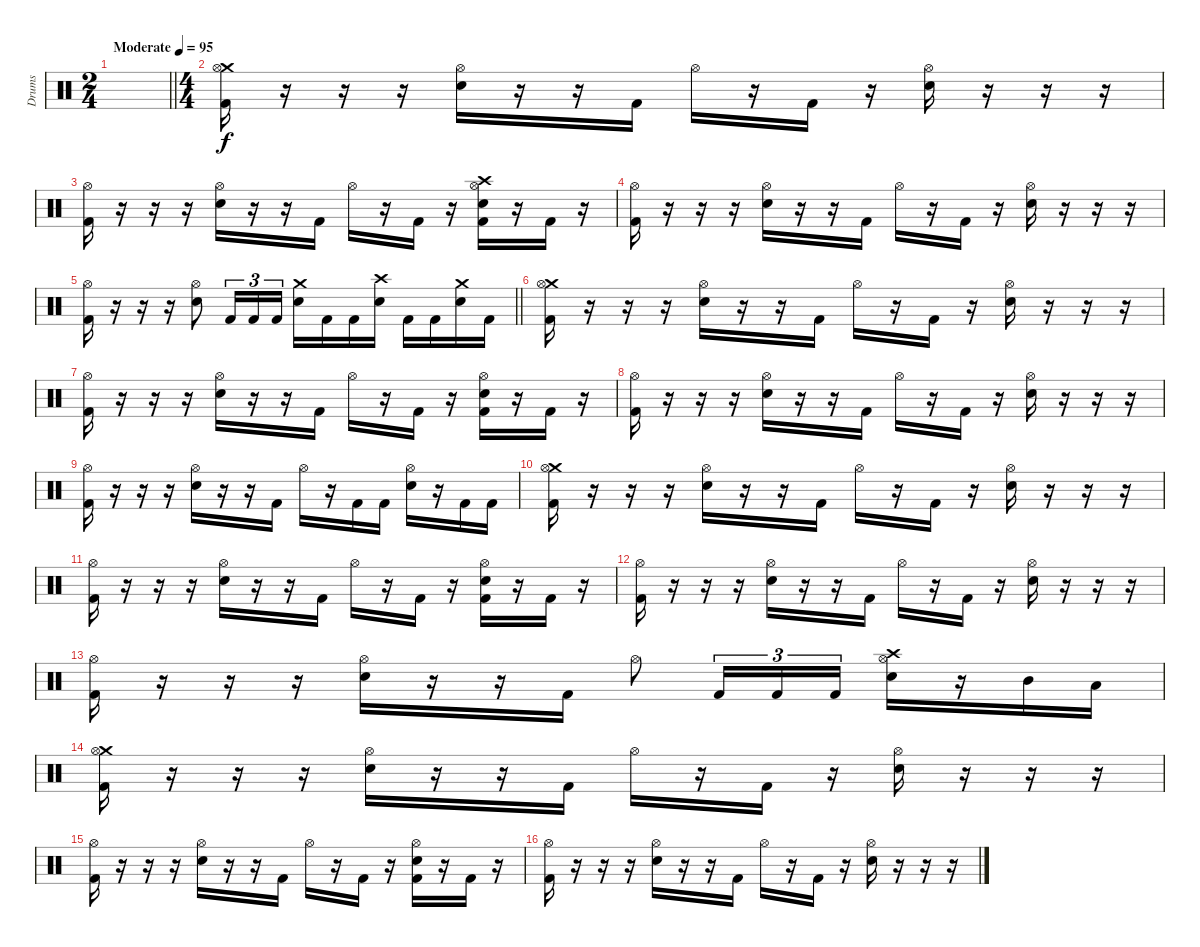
\track ("Drums" "Drums") {instrument percussion}
\staff {score}
\articulation defaults
\ts (2 4)
\tempo (95 "Moderate")
\clef neutral
\barLineRight lightlight
\ks c
|
\ts (4 4)
\section ("" "")
("Crash medium (hit)" "Hi-Hat (open)" "Kick (hit) 2").16 r.16 r.16 r.16 ("Hi-Hat (open)" "Electric Snare (hit)").16 r.16 r.16 "Kick (hit) 2".16 "Hi-Hat (open)".16 r.16 "Kick (hit) 2".16 r.16 ("Hi-Hat (open)" "Electric Snare (hit)").16 r.16 r.16 r.16 |
("Hi-Hat (open)" "Kick (hit) 2").16 r.16 r.16 r.16 ("Hi-Hat (open)" "Electric Snare (hit)").16 r.16 r.16 "Kick (hit) 2".16 "Hi-Hat (open)".16 r.16 "Kick (hit) 2".16 r.16 ("Crash high (hit)" "Hi-Hat (open)" "Electric Snare (hit)" "Kick (hit) 2").16 r.16 "Kick (hit) 2".16 r.16 |
("Hi-Hat (open)" "Kick (hit) 2").16 r.16 r.16 r.16 ("Hi-Hat (open)" "Electric Snare (hit)").16 r.16 r.16 "Kick (hit) 2".16 "Hi-Hat (open)".16 r.16 "Kick (hit) 2".16 r.16 ("Hi-Hat (open)" "Electric Snare (hit)").16 r.16 r.16 r.16 |
\barLineRight lightlight
("Hi-Hat (open)" "Kick (hit) 2").16 r.16 r.16 r.16 ("Hi-Hat (open)" "Electric Snare (hit)").8 "Kick (hit) 2".16{tu (3 2)} "Kick (hit) 2".16{tu (3 2)} "Kick (hit) 2".16{tu (3 2)} ("Crash medium (hit)" "Electric Snare (hit)").16 "Kick (hit) 2".16 "Kick (hit) 2".16 ("Crash high (hit)" "Electric Snare (hit)").16 "Kick (hit) 2".16 "Kick (hit) 2".16 ("Crash medium (hit)" "Electric Snare (hit)").16 "Kick (hit) 2".16 |
\section ("" "")
("Crash medium (hit)" "Hi-Hat (open)" "Kick (hit) 2").16 r.16 r.16 r.16 ("Hi-Hat (open)" "Electric Snare (hit)").16 r.16 r.16 "Kick (hit) 2".16 "Hi-Hat (open)".16 r.16 "Kick (hit) 2".16 r.16 ("Hi-Hat (open)" "Electric Snare (hit)").16 r.16 r.16 r.16 |
("Hi-Hat (open)" "Kick (hit) 2").16 r.16 r.16 r.16 ("Hi-Hat (open)" "Electric Snare (hit)").16 r.16 r.16 "Kick (hit) 2".16 "Hi-Hat (open)".16 r.16 "Kick (hit) 2".16 r.16 ("Hi-Hat (open)" "Electric Snare (hit)" "Kick (hit) 2").16 r.16 "Kick (hit) 2".16 r.16 |
("Hi-Hat (open)" "Kick (hit) 2").16 r.16 r.16 r.16 ("Hi-Hat (open)" "Electric Snare (hit)").16 r.16 r.16 "Kick (hit) 2".16 "Hi-Hat (open)".16 r.16 "Kick (hit) 2".16 r.16 ("Hi-Hat (open)" "Electric Snare (hit)").16 r.16 r.16 r.16 |
("Hi-Hat (open)" "Kick (hit) 2").16 r.16 r.16 r.16 ("Hi-Hat (open)" "Electric Snare (hit)").16 r.16 r.16 "Kick (hit) 2".16 "Hi-Hat (open)".16 r.16 "Kick (hit) 2".16 "Kick (hit) 2".16 ("Hi-Hat (open)" "Electric Snare (hit)").16 r.16 "Kick (hit) 2".16 "Kick (hit) 2".16 |
("Crash medium (hit)" "Hi-Hat (open)" "Kick (hit) 2").16 r.16 r.16 r.16 ("Hi-Hat (open)" "Electric Snare (hit)").16 r.16 r.16 "Kick (hit) 2".16 "Hi-Hat (open)".16 r.16 "Kick (hit) 2".16 r.16 ("Hi-Hat (open)" "Electric Snare (hit)").16 r.16 r.16 r.16 |
("Hi-Hat (open)" "Kick (hit) 2").16 r.16 r.16 r.16 ("Hi-Hat (open)" "Electric Snare (hit)").16 r.16 r.16 "Kick (hit) 2".16 "Hi-Hat (open)".16 r.16 "Kick (hit) 2".16 r.16 ("Hi-Hat (open)" "Electric Snare (hit)" "Kick (hit) 2").16 r.16 "Kick (hit) 2".16 r.16 |
("Hi-Hat (open)" "Kick (hit) 2").16 r.16 r.16 r.16 ("Hi-Hat (open)" "Electric Snare (hit)").16 r.16 r.16 "Kick (hit) 2".16 "Hi-Hat (open)".16 r.16 "Kick (hit) 2".16 r.16 ("Hi-Hat (open)" "Electric Snare (hit)").16 r.16 r.16 r.16 |
("Hi-Hat (open)" "Kick (hit) 2").16 r.16 r.16 r.16 ("Hi-Hat (open)" "Electric Snare (hit)").16 r.16 r.16 "Kick (hit) 2".16 "Hi-Hat (open)".8 "Kick (hit) 2".16{tu (3 2)} "Kick (hit) 2".16{tu (3 2)} "Kick (hit) 2".16{tu (3 2)} ("Crash high (hit)" "Hi-Hat (open)" "Electric Snare (hit)").16 r.16 "Mid Tom (hit)".16 "Low Tom (hit)".16 |
("Crash medium (hit)" "Hi-Hat (open)" "Kick (hit) 2").16 r.16 r.16 r.16 ("Hi-Hat (open)" "Electric Snare (hit)").16 r.16 r.16 "Kick (hit) 2".16 "Hi-Hat (open)".16 r.16 "Kick (hit) 2".16 r.16 ("Hi-Hat (open)" "Electric Snare (hit)").16 r.16 r.16 r.16 |
("Hi-Hat (open)" "Kick (hit) 2").16 r.16 r.16 r.16 ("Hi-Hat (open)" "Electric Snare (hit)").16 r.16 r.16 "Kick (hit) 2".16 "Hi-Hat (open)".16 r.16 "Kick (hit) 2".16 r.16 ("Hi-Hat (open)" "Electric Snare (hit)" "Kick (hit) 2").16 r.16 "Kick (hit) 2".16 r.16 |
("Hi-Hat (open)" "Kick (hit) 2").16 r.16 r.16 r.16 ("Hi-Hat (open)" "Electric Snare (hit)").16 r.16 r.16 "Kick (hit) 2".16 "Hi-Hat (open)".16 r.16 "Kick (hit) 2".16 r.16 ("Hi-Hat (open)" "Electric Snare (hit)").16 r.16 r.16 r.16
